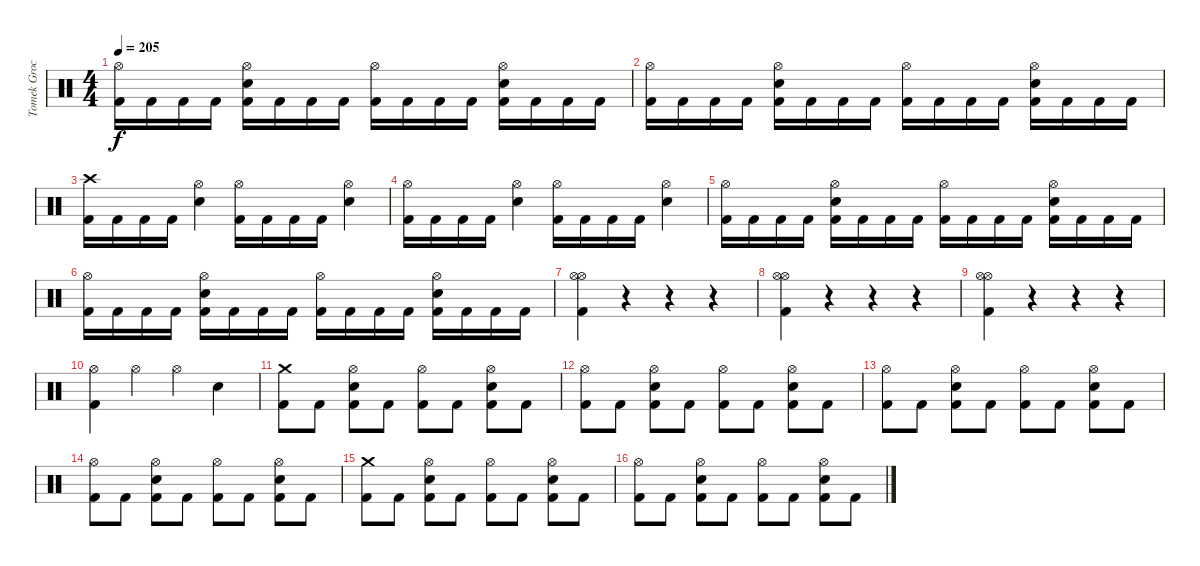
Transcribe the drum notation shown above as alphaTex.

\track ("Tomek Grochowski" "Tomek Groc") {instrument percussion}
\staff {score}
\articulation defaults
\ts (4 4)
\tempo 205
\clef neutral
\ks c
("Hi-Hat (open)" "Kick (hit) 2").16{dy f} "Kick (hit) 2".16 "Kick (hit) 2".16 "Kick (hit) 2".16 ("Hi-Hat (open)" "Electric Snare (hit)" "Kick (hit) 2").16 "Kick (hit) 2".16 "Kick (hit) 2".16 "Kick (hit) 2".16 ("Hi-Hat (open)" "Kick (hit) 2").16 "Kick (hit) 2".16 "Kick (hit) 2".16 "Kick (hit) 2".16 ("Hi-Hat (open)" "Electric Snare (hit)" "Kick (hit) 2").16 "Kick (hit) 2".16 "Kick (hit) 2".16 "Kick (hit) 2".16 |
("Hi-Hat (open)" "Kick (hit) 2").16 "Kick (hit) 2".16 "Kick (hit) 2".16 "Kick (hit) 2".16 ("Hi-Hat (open)" "Electric Snare (hit)" "Kick (hit) 2").16 "Kick (hit) 2".16 "Kick (hit) 2".16 "Kick (hit) 2".16 ("Hi-Hat (open)" "Kick (hit) 2").16 "Kick (hit) 2".16 "Kick (hit) 2".16 "Kick (hit) 2".16 ("Hi-Hat (open)" "Electric Snare (hit)" "Kick (hit) 2").16 "Kick (hit) 2".16 "Kick (hit) 2".16 "Kick (hit) 2".16 |
("Crash high (hit)" "Kick (hit) 2").16 "Kick (hit) 2".16 "Kick (hit) 2".16 "Kick (hit) 2".16 ("Hi-Hat (open)" "Electric Snare (hit)").4 ("Hi-Hat (open)" "Kick (hit) 2").16 "Kick (hit) 2".16 "Kick (hit) 2".16 "Kick (hit) 2".16 ("Hi-Hat (open)" "Electric Snare (hit)").4 |
("Hi-Hat (open)" "Kick (hit) 2").16 "Kick (hit) 2".16 "Kick (hit) 2".16 "Kick (hit) 2".16 ("Hi-Hat (open)" "Electric Snare (hit)").4 ("Hi-Hat (open)" "Kick (hit) 2").16 "Kick (hit) 2".16 "Kick (hit) 2".16 "Kick (hit) 2".16 ("Hi-Hat (open)" "Electric Snare (hit)").4 |
("Hi-Hat (open)" "Kick (hit) 2").16 "Kick (hit) 2".16 "Kick (hit) 2".16 "Kick (hit) 2".16 ("Hi-Hat (open)" "Electric Snare (hit)" "Kick (hit) 2").16 "Kick (hit) 2".16 "Kick (hit) 2".16 "Kick (hit) 2".16 ("Hi-Hat (open)" "Kick (hit) 2").16 "Kick (hit) 2".16 "Kick (hit) 2".16 "Kick (hit) 2".16 ("Hi-Hat (open)" "Electric Snare (hit)" "Kick (hit) 2").16 "Kick (hit) 2".16 "Kick (hit) 2".16 "Kick (hit) 2".16 |
("Hi-Hat (open)" "Kick (hit) 2").16 "Kick (hit) 2".16 "Kick (hit) 2".16 "Kick (hit) 2".16 ("Hi-Hat (open)" "Electric Snare (hit)" "Kick (hit) 2").16 "Kick (hit) 2".16 "Kick (hit) 2".16 "Kick (hit) 2".16 ("Hi-Hat (open)" "Kick (hit) 2").16 "Kick (hit) 2".16 "Kick (hit) 2".16 "Kick (hit) 2".16 ("Hi-Hat (open)" "Electric Snare (hit)" "Kick (hit) 2").16 "Kick (hit) 2".16 "Kick (hit) 2".16 "Kick (hit) 2".16 |
("Hi-Hat (open)" "Hi-Hat (open)" "Kick (hit) 2").4 r.4 r.4 r.4 |
("Hi-Hat (open)" "Hi-Hat (open)" "Kick (hit) 2").4 r.4 r.4 r.4 |
("Hi-Hat (open)" "Hi-Hat (open)" "Kick (hit) 2").4 r.4 r.4 r.4 |
("Hi-Hat (open)" "Kick (hit) 2").4 "Hi-Hat (open)".4 "Hi-Hat (open)".4 "Electric Snare (hit)".4 |
("Crash medium (hit)" "Kick (hit) 2").8 "Kick (hit) 2".8 ("Hi-Hat (open)" "Electric Snare (hit)" "Kick (hit) 2").8 "Kick (hit) 2".8 ("Hi-Hat (open)" "Kick (hit) 2").8 "Kick (hit) 2".8 ("Hi-Hat (open)" "Electric Snare (hit)" "Kick (hit) 2").8 "Kick (hit) 2".8 |
("Hi-Hat (open)" "Kick (hit) 2").8 "Kick (hit) 2".8 ("Hi-Hat (open)" "Electric Snare (hit)" "Kick (hit) 2").8 "Kick (hit) 2".8 ("Hi-Hat (open)" "Kick (hit) 2").8 "Kick (hit) 2".8 ("Hi-Hat (open)" "Electric Snare (hit)" "Kick (hit) 2").8 "Kick (hit) 2".8 |
("Hi-Hat (open)" "Kick (hit) 2").8 "Kick (hit) 2".8 ("Hi-Hat (open)" "Electric Snare (hit)" "Kick (hit) 2").8 "Kick (hit) 2".8 ("Hi-Hat (open)" "Kick (hit) 2").8 "Kick (hit) 2".8 ("Hi-Hat (open)" "Electric Snare (hit)" "Kick (hit) 2").8 "Kick (hit) 2".8 |
("Hi-Hat (open)" "Kick (hit) 2").8 "Kick (hit) 2".8 ("Hi-Hat (open)" "Electric Snare (hit)" "Kick (hit) 2").8 "Kick (hit) 2".8 ("Hi-Hat (open)" "Kick (hit) 2").8 "Kick (hit) 2".8 ("Hi-Hat (open)" "Electric Snare (hit)" "Kick (hit) 2").8 "Kick (hit) 2".8 |
("Crash medium (hit)" "Kick (hit) 2").8 "Kick (hit) 2".8 ("Hi-Hat (open)" "Electric Snare (hit)" "Kick (hit) 2").8 "Kick (hit) 2".8 ("Hi-Hat (open)" "Kick (hit) 2").8 "Kick (hit) 2".8 ("Hi-Hat (open)" "Electric Snare (hit)" "Kick (hit) 2").8 "Kick (hit) 2".8 |
("Hi-Hat (open)" "Kick (hit) 2").8 "Kick (hit) 2".8 ("Hi-Hat (open)" "Electric Snare (hit)" "Kick (hit) 2").8 "Kick (hit) 2".8 ("Hi-Hat (open)" "Kick (hit) 2").8 "Kick (hit) 2".8 ("Hi-Hat (open)" "Electric Snare (hit)" "Kick (hit) 2").8 "Kick (hit) 2".8
